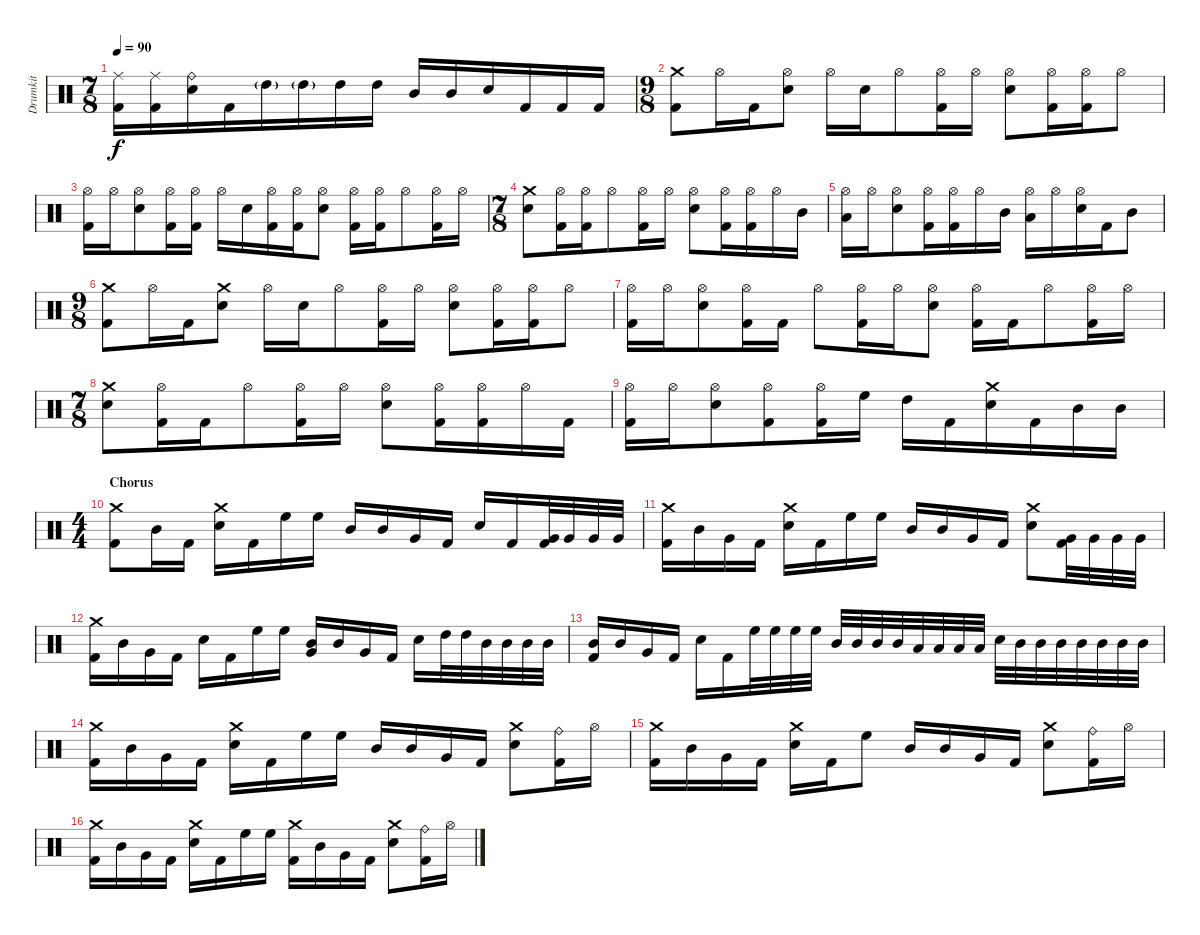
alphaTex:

\track ("Drumkit" "Drumkit") {instrument percussion}
\staff {score}
\articulation defaults
\ts (7 8)
\tempo 90
\clef neutral
\ks c
("Ride (middle)" "Kick (hit) 2").16{dy f} ("Ride (middle)" "Kick (hit) 2").16 ("Ride (bell)" "Snare (hit) 2").16 "Kick (hit) 2".16 "High Tom (hit)"{g}.16 "High Tom (hit)"{g}.16 "High Tom (hit)".16 "High Tom (hit)".16 "Mid Tom (hit)".16 "Mid Tom (hit)".16 "Snare (hit) 2".16 "Kick (hit) 2".16 "Kick (hit) 2".16 "Kick (hit) 2".16 |
\ts (9 8)
("Crash medium (hit)" "Kick (hit) 2").8 "Hi-Hat (open)".16 "Kick (hit) 2".16 ("Hi-Hat (open)" "Snare (hit) 2").8 "Hi-Hat (open)".16 "Snare (hit) 2".16 "Hi-Hat (open)".8 ("Hi-Hat (open)" "Kick (hit) 2").16 "Hi-Hat (open)".16 ("Hi-Hat (open)" "Snare (hit) 2").8 ("Hi-Hat (open)" "Kick (hit) 2").16 ("Hi-Hat (open)" "Kick (hit) 2").16 "Hi-Hat (open)".8 |
("Hi-Hat (open)" "Kick (hit) 2").16 "Hi-Hat (open)".16 ("Hi-Hat (open)" "Snare (hit) 2").8 ("Hi-Hat (open)" "Kick (hit) 2").16 ("Hi-Hat (open)" "Kick (hit) 2").16 "Hi-Hat (open)".16 "Snare (hit) 2".16 ("Hi-Hat (open)" "Kick (hit) 2").16 ("Hi-Hat (open)" "Kick (hit) 2").16 ("Hi-Hat (open)" "Snare (hit) 2").8 ("Hi-Hat (open)" "Kick (hit) 2").16 ("Hi-Hat (open)" "Kick (hit) 2").16 "Hi-Hat (open)".8 ("Hi-Hat (open)" "Kick (hit) 2").16 "Hi-Hat (open)".16 |
\ts (7 8)
("Crash medium (hit)" "Snare (hit) 2").8 ("Hi-Hat (open)" "Kick (hit) 2").16 ("Hi-Hat (open)" "Kick (hit) 2").16 "Hi-Hat (open)".8 ("Hi-Hat (open)" "Kick (hit) 2").16 "Hi-Hat (open)".16 ("Hi-Hat (open)" "Snare (hit) 2").8 ("Hi-Hat (open)" "Kick (hit) 2").16 ("Hi-Hat (open)" "Kick (hit) 2").16 "Hi-Hat (open)".16 "Mid Tom (hit)".16 |
("Hi-Hat (open)" "Low Tom (hit)").16 "Hi-Hat (open)".16 ("Hi-Hat (open)" "Snare (hit) 2").8 ("Hi-Hat (open)" "Kick (hit) 2").16 ("Hi-Hat (open)" "Kick (hit) 2").16 "Hi-Hat (open)".16 "Mid Tom (hit)".16 ("Hi-Hat (open)" "Low Tom (hit)").16 "Hi-Hat (open)".16 ("Hi-Hat (open)" "Snare (hit) 2").16 "Kick (hit) 2".16 "Mid Tom (hit)".8 |
\ts (9 8)
("Crash medium (hit)" "Kick (hit) 2").8 "Hi-Hat (open)".16 "Kick (hit) 2".16 ("Crash medium (hit)" "Snare (hit) 2").8 "Hi-Hat (open)".16 "Snare (hit) 2".16 "Hi-Hat (open)".8 ("Hi-Hat (open)" "Kick (hit) 2").16 "Hi-Hat (open)".16 ("Hi-Hat (open)" "Snare (hit) 2").8 ("Hi-Hat (open)" "Kick (hit) 2").16 ("Hi-Hat (open)" "Kick (hit) 2").16 "Hi-Hat (open)".8 |
("Hi-Hat (open)" "Kick (hit) 2").16 "Hi-Hat (open)".16 ("Hi-Hat (open)" "Snare (hit) 2").8 ("Hi-Hat (open)" "Kick (hit) 2").16 "Kick (hit) 2".16 "Hi-Hat (open)".8 ("Hi-Hat (open)" "Kick (hit) 2").16 "Hi-Hat (open)".16 ("Hi-Hat (open)" "Snare (hit) 2").8 ("Hi-Hat (open)" "Kick (hit) 2").16 "Kick (hit) 2".16 "Hi-Hat (open)".8 ("Hi-Hat (open)" "Kick (hit) 2").16 "Hi-Hat (open)".16 |
\ts (7 8)
("Crash medium (hit)" "Snare (hit) 2").8 ("Hi-Hat (open)" "Kick (hit) 2").16 "Kick (hit) 2".16 "Hi-Hat (open)".8 ("Hi-Hat (open)" "Kick (hit) 2").16 "Hi-Hat (open)".16 ("Hi-Hat (open)" "Snare (hit) 2").8 ("Hi-Hat (open)" "Kick (hit) 2").16 ("Hi-Hat (open)" "Kick (hit) 2").16 "Hi-Hat (open)".16 "Kick (hit) 2".16 |
("Hi-Hat (open)" "Kick (hit) 2").16 "Hi-Hat (open)".16 ("Hi-Hat (open)" "Snare (hit) 2").8 ("Hi-Hat (open)" "Kick (hit) 2").8 ("Hi-Hat (open)" "Kick (hit) 2").16 "High Floor Tom (hit)".16 "High Tom (hit)".16 "Kick (hit) 2".16 ("Crash medium (hit)" "Snare (hit) 2").16 "Kick (hit) 2".16 "Mid Tom (hit)".16 "Mid Tom (hit)".16 |
\ts (4 4)
\section ("" "Chorus")
("Crash medium (hit)" "Kick (hit) 2").8 "Mid Tom (hit)".16 "Kick (hit) 2".16 ("Crash medium (hit)" "Snare (hit) 2").16 "Kick (hit) 2".16 "High Floor Tom (hit)".16 "High Floor Tom (hit)".16 "Mid Tom (hit)".16 "Mid Tom (hit)".16 "Very Low Tom (hit)".16 "Kick (hit) 2".16 "Snare (hit) 2".16 "Kick (hit) 2".16 ("Very Low Tom (hit)" "Kick (hit) 2").32 "Very Low Tom (hit)".32 "Very Low Tom (hit)".32 "Very Low Tom (hit)".32 |
("Crash medium (hit)" "Kick (hit) 2").16 "Mid Tom (hit)".16 "Very Low Tom (hit)".16 "Kick (hit) 2".16 ("Crash medium (hit)" "Snare (hit) 2").16 "Kick (hit) 2".16 "High Floor Tom (hit)".16 "High Floor Tom (hit)".16 "Mid Tom (hit)".16 "Mid Tom (hit)".16 "Very Low Tom (hit)".16 "Kick (hit) 2".16 ("Crash medium (hit)" "Snare (hit) 2").8 ("Very Low Tom (hit)" "Kick (hit) 2").32 "Very Low Tom (hit)".32 "Very Low Tom (hit)".32 "Very Low Tom (hit)".32 |
("Crash medium (hit)" "Kick (hit) 2").16 "Mid Tom (hit)".16 "Very Low Tom (hit)".16 "Kick (hit) 2".16 "Snare (hit) 2".16 "Kick (hit) 2".16 "High Floor Tom (hit)".16 "High Floor Tom (hit)".16 ("Mid Tom (hit)" "Very Low Tom (hit)").16 "Mid Tom (hit)".16 "Very Low Tom (hit)".16 "Kick (hit) 2".16 "Snare (hit) 2".16 "High Tom (hit)".32 "High Tom (hit)".32 "Mid Tom (hit)".32 "Mid Tom (hit)".32 "Mid Tom (hit)".32 "Mid Tom (hit)".32 |
("Mid Tom (hit)" "Kick (hit) 2").16 "Mid Tom (hit)".16 "Very Low Tom (hit)".16 "Kick (hit) 2".16 "Snare (hit) 2".16 "Kick (hit) 2".16 "High Floor Tom (hit)".32 "High Floor Tom (hit)".32 "High Floor Tom (hit)".32 "High Floor Tom (hit)".32 "Mid Tom (hit)".32 "Mid Tom (hit)".32 "Mid Tom (hit)".32 "Mid Tom (hit)".32 "Low Tom (hit)".32 "Low Tom (hit)".32 "Low Tom (hit)".32 "Low Tom (hit)".32 "Snare (hit) 2".32 "Mid Tom (hit)".32 "Mid Tom (hit)".32 "Mid Tom (hit)".32 "Mid Tom (hit)".32 "Mid Tom (hit)".32 "Mid Tom (hit)".32 "Mid Tom (hit)".32 |
("Crash medium (hit)" "Kick (hit) 2").16 "Mid Tom (hit)".16 "Very Low Tom (hit)".16 "Kick (hit) 2".16 ("Crash medium (hit)" "Snare (hit) 2").16 "Kick (hit) 2".16 "High Floor Tom (hit)".16 "High Floor Tom (hit)".16 "Mid Tom (hit)".16 "Mid Tom (hit)".16 "Very Low Tom (hit)".16 "Kick (hit) 2".16 ("Crash medium (hit)" "Snare (hit) 2").8 ("Ride (bell)" "Kick (hit) 2").16 "Hi-Hat (open)".16 |
("Crash medium (hit)" "Kick (hit) 2").16 "Mid Tom (hit)".16 "Very Low Tom (hit)".16 "Kick (hit) 2".16 ("Crash medium (hit)" "Snare (hit) 2").16 "Kick (hit) 2".16 "High Floor Tom (hit)".8 "Mid Tom (hit)".16 "Mid Tom (hit)".16 "Very Low Tom (hit)".16 "Kick (hit) 2".16 ("Crash medium (hit)" "Snare (hit) 2").8 ("Ride (bell)" "Kick (hit) 2").16 "Hi-Hat (open)".16 |
("Crash medium (hit)" "Kick (hit) 2").16 "Mid Tom (hit)".16 "Very Low Tom (hit)".16 "Kick (hit) 2".16 ("Crash medium (hit)" "Snare (hit) 2").16 "Kick (hit) 2".16 "High Floor Tom (hit)".16 "High Floor Tom (hit)".16 ("Crash medium (hit)" "Kick (hit) 2").16 "Mid Tom (hit)".16 "Very Low Tom (hit)".16 "Kick (hit) 2".16 ("Crash medium (hit)" "Snare (hit) 2").8 ("Ride (bell)" "Kick (hit) 2").16 "Hi-Hat (open)".16
